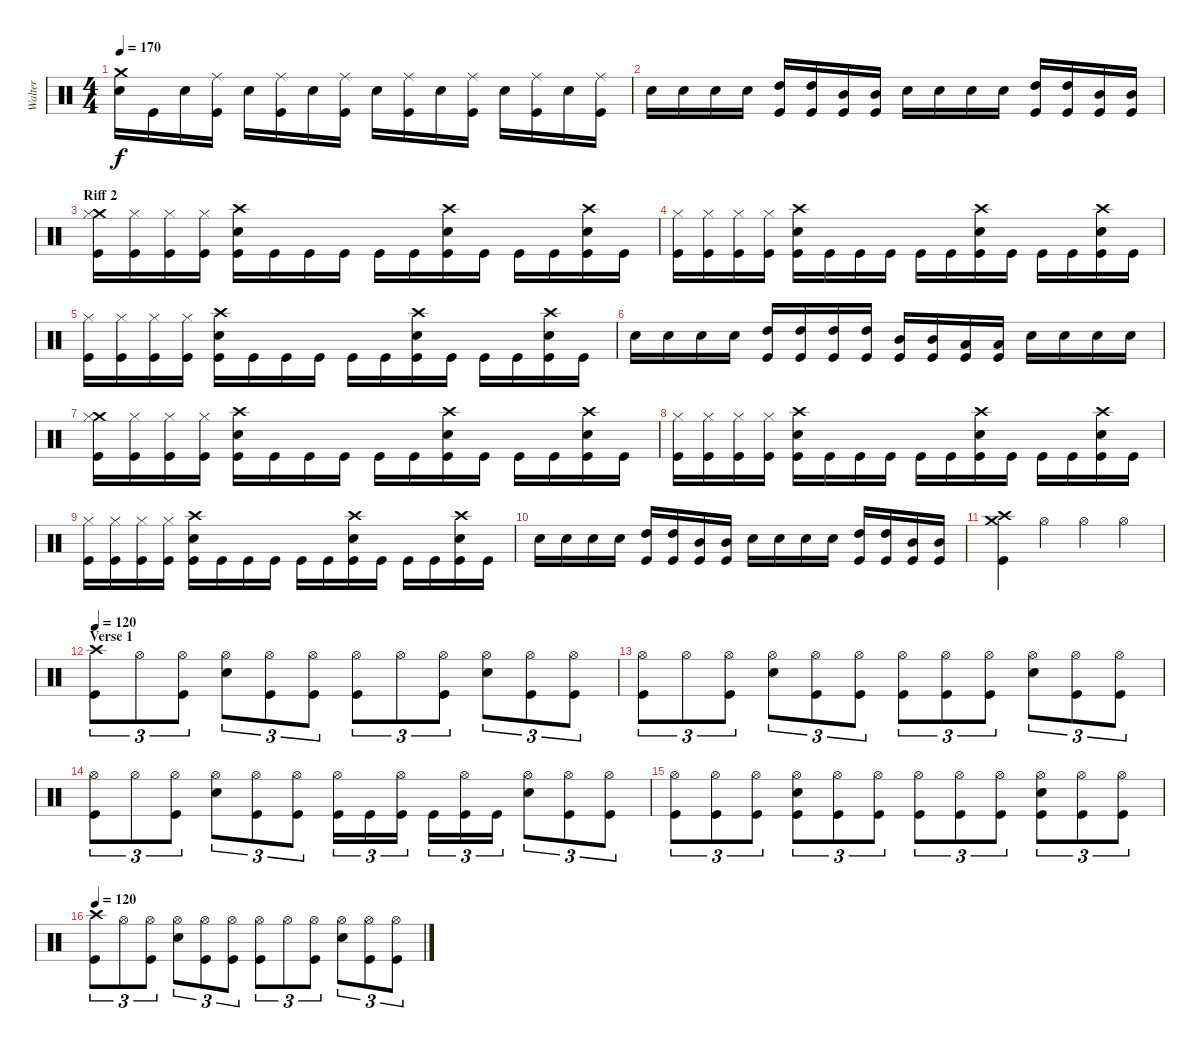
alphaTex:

\track ("Walter" "Walter") {instrument percussion}
\staff {score}
\articulation defaults
\ts (4 4)
\tempo 170
\clef neutral
\ks c
("Crash medium (hit)" "Electric Snare (hit)").16{dy f} "Kick (hit)".16 "Electric Snare (hit)".16 ("Ride (middle)" "Kick (hit)").16 "Electric Snare (hit)".16 ("Ride (middle)" "Kick (hit)").16 "Electric Snare (hit)".16 ("Ride (middle)" "Kick (hit)").16 "Electric Snare (hit)".16 ("Ride (middle)" "Kick (hit)").16 "Electric Snare (hit)".16 ("Ride (middle)" "Kick (hit)").16 "Electric Snare (hit)".16 ("Ride (middle)" "Kick (hit)").16 "Electric Snare (hit)".16 ("Ride (middle)" "Kick (hit)").16 |
"Electric Snare (hit)".16 "Electric Snare (hit)".16 "Electric Snare (hit)".16 "Electric Snare (hit)".16 ("High Tom (hit)" "Kick (hit)").16 ("High Tom (hit)" "Kick (hit)").16 ("Mid Tom (hit)" "Kick (hit)").16 ("Mid Tom (hit)" "Kick (hit)").16 "Electric Snare (hit)".16 "Electric Snare (hit)".16 "Electric Snare (hit)".16 "Electric Snare (hit)".16 ("High Tom (hit)" "Kick (hit)").16 ("High Tom (hit)" "Kick (hit)").16 ("Mid Tom (hit)" "Kick (hit)").16 ("Mid Tom (hit)" "Kick (hit)").16 |
\section ("" "Riff 2")
("Crash medium (hit)" "Hi-Hat (closed)" "Kick (hit)").16 ("Hi-Hat (closed)" "Kick (hit)").16 ("Hi-Hat (closed)" "Kick (hit)").16 ("Hi-Hat (closed)" "Kick (hit)").16 ("Crash high (hit)" "Electric Snare (hit)" "Kick (hit)").16 "Kick (hit)".16 "Kick (hit)".16 "Kick (hit)".16 "Kick (hit)".16 "Kick (hit)".16 ("Crash high (hit)" "Electric Snare (hit)" "Kick (hit)").16 "Kick (hit)".16 "Kick (hit)".16 "Kick (hit)".16 ("Crash high (hit)" "Electric Snare (hit)" "Kick (hit)").16 "Kick (hit)".16 |
("Hi-Hat (closed)" "Kick (hit)").16 ("Hi-Hat (closed)" "Kick (hit)").16 ("Hi-Hat (closed)" "Kick (hit)").16 ("Hi-Hat (closed)" "Kick (hit)").16 ("Crash high (hit)" "Electric Snare (hit)" "Kick (hit)").16 "Kick (hit)".16 "Kick (hit)".16 "Kick (hit)".16 "Kick (hit)".16 "Kick (hit)".16 ("Crash high (hit)" "Electric Snare (hit)" "Kick (hit)").16 "Kick (hit)".16 "Kick (hit)".16 "Kick (hit)".16 ("Crash high (hit)" "Electric Snare (hit)" "Kick (hit)").16 "Kick (hit)".16 |
("Hi-Hat (closed)" "Kick (hit)").16 ("Hi-Hat (closed)" "Kick (hit)").16 ("Hi-Hat (closed)" "Kick (hit)").16 ("Hi-Hat (closed)" "Kick (hit)").16 ("Crash high (hit)" "Electric Snare (hit)" "Kick (hit)").16 "Kick (hit)".16 "Kick (hit)".16 "Kick (hit)".16 "Kick (hit)".16 "Kick (hit)".16 ("Crash high (hit)" "Electric Snare (hit)" "Kick (hit)").16 "Kick (hit)".16 "Kick (hit)".16 "Kick (hit)".16 ("Crash high (hit)" "Electric Snare (hit)" "Kick (hit)").16 "Kick (hit)".16 |
"Electric Snare (hit)".16 "Electric Snare (hit)".16 "Electric Snare (hit)".16 "Electric Snare (hit)".16 ("High Tom (hit)" "Kick (hit)").16 ("High Tom (hit)" "Kick (hit)").16 ("High Tom (hit)" "Kick (hit)").16 ("High Tom (hit)" "Kick (hit)").16 ("Mid Tom (hit)" "Kick (hit)").16 ("Mid Tom (hit)" "Kick (hit)").16 ("Low Tom (hit)" "Kick (hit)").16 ("Low Tom (hit)" "Kick (hit)").16 "Electric Snare (hit)".16 "Electric Snare (hit)".16 "Electric Snare (hit)".16 "Electric Snare (hit)".16 |
("Crash medium (hit)" "Hi-Hat (closed)" "Kick (hit)").16 ("Hi-Hat (closed)" "Kick (hit)").16 ("Hi-Hat (closed)" "Kick (hit)").16 ("Hi-Hat (closed)" "Kick (hit)").16 ("Crash high (hit)" "Electric Snare (hit)" "Kick (hit)").16 "Kick (hit)".16 "Kick (hit)".16 "Kick (hit)".16 "Kick (hit)".16 "Kick (hit)".16 ("Crash high (hit)" "Electric Snare (hit)" "Kick (hit)").16 "Kick (hit)".16 "Kick (hit)".16 "Kick (hit)".16 ("Crash high (hit)" "Electric Snare (hit)" "Kick (hit)").16 "Kick (hit)".16 |
("Hi-Hat (closed)" "Kick (hit)").16 ("Hi-Hat (closed)" "Kick (hit)").16 ("Hi-Hat (closed)" "Kick (hit)").16 ("Hi-Hat (closed)" "Kick (hit)").16 ("Crash high (hit)" "Electric Snare (hit)" "Kick (hit)").16 "Kick (hit)".16 "Kick (hit)".16 "Kick (hit)".16 "Kick (hit)".16 "Kick (hit)".16 ("Crash high (hit)" "Electric Snare (hit)" "Kick (hit)").16 "Kick (hit)".16 "Kick (hit)".16 "Kick (hit)".16 ("Crash high (hit)" "Electric Snare (hit)" "Kick (hit)").16 "Kick (hit)".16 |
("Hi-Hat (closed)" "Kick (hit)").16 ("Hi-Hat (closed)" "Kick (hit)").16 ("Hi-Hat (closed)" "Kick (hit)").16 ("Hi-Hat (closed)" "Kick (hit)").16 ("Crash high (hit)" "Electric Snare (hit)" "Kick (hit)").16 "Kick (hit)".16 "Kick (hit)".16 "Kick (hit)".16 "Kick (hit)".16 "Kick (hit)".16 ("Crash high (hit)" "Electric Snare (hit)" "Kick (hit)").16 "Kick (hit)".16 "Kick (hit)".16 "Kick (hit)".16 ("Crash high (hit)" "Electric Snare (hit)" "Kick (hit)").16 "Kick (hit)".16 |
"Electric Snare (hit)".16 "Electric Snare (hit)".16 "Electric Snare (hit)".16 "Electric Snare (hit)".16 ("High Tom (hit)" "Kick (hit)").16 ("High Tom (hit)" "Kick (hit)").16 ("Mid Tom (hit)" "Kick (hit)").16 ("Mid Tom (hit)" "Kick (hit)").16 "Electric Snare (hit)".16 "Electric Snare (hit)".16 "Electric Snare (hit)".16 "Electric Snare (hit)".16 ("High Tom (hit)" "Kick (hit)").16 ("High Tom (hit)" "Kick (hit)").16 ("Mid Tom (hit)" "Kick (hit)").16 ("Mid Tom (hit)" "Kick (hit)").16 |
("Crash medium (hit)" "Crash high (hit)" "Kick (hit)").4 "Hi-Hat (open)".4 "Hi-Hat (open)".4 "Hi-Hat (open)".4 |
\section ("" "Verse 1")
\tempo 120
("Crash high (hit)" "Kick (hit)").8{tu (3 2)} "Hi-Hat (open)".8{tu (3 2)} ("Hi-Hat (open)" "Kick (hit)").8{tu (3 2)} ("Hi-Hat (open)" "Electric Snare (hit)").8{tu (3 2)} ("Hi-Hat (open)" "Kick (hit)").8{tu (3 2)} ("Hi-Hat (open)" "Kick (hit)").8{tu (3 2)} ("Hi-Hat (open)" "Kick (hit)").8{tu (3 2)} "Hi-Hat (open)".8{tu (3 2)} ("Hi-Hat (open)" "Kick (hit)").8{tu (3 2)} ("Hi-Hat (open)" "Electric Snare (hit)").8{tu (3 2)} ("Hi-Hat (open)" "Kick (hit)").8{tu (3 2)} ("Hi-Hat (open)" "Kick (hit)").8{tu (3 2)} |
("Hi-Hat (open)" "Kick (hit)").8{tu (3 2)} "Hi-Hat (open)".8{tu (3 2)} ("Hi-Hat (open)" "Kick (hit)").8{tu (3 2)} ("Hi-Hat (open)" "Electric Snare (hit)").8{tu (3 2)} ("Hi-Hat (open)" "Kick (hit)").8{tu (3 2)} ("Hi-Hat (open)" "Kick (hit)").8{tu (3 2)} ("Hi-Hat (open)" "Kick (hit)").8{tu (3 2)} ("Hi-Hat (open)" "Kick (hit)").8{tu (3 2)} ("Hi-Hat (open)" "Kick (hit)").8{tu (3 2)} ("Hi-Hat (open)" "Electric Snare (hit)").8{tu (3 2)} ("Hi-Hat (open)" "Kick (hit)").8{tu (3 2)} ("Hi-Hat (open)" "Kick (hit)").8{tu (3 2)} |
("Hi-Hat (open)" "Kick (hit)").8{tu (3 2)} "Hi-Hat (open)".8{tu (3 2)} ("Hi-Hat (open)" "Kick (hit)").8{tu (3 2)} ("Hi-Hat (open)" "Electric Snare (hit)").8{tu (3 2)} ("Hi-Hat (open)" "Kick (hit)").8{tu (3 2)} ("Hi-Hat (open)" "Kick (hit)").8{tu (3 2)} ("Hi-Hat (open)" "Kick (hit)").16{tu (3 2)} "Kick (hit)".16{tu (3 2)} ("Hi-Hat (open)" "Kick (hit)").16{tu (3 2)} "Kick (hit)".16{tu (3 2)} ("Hi-Hat (open)" "Kick (hit)").16{tu (3 2)} "Kick (hit)".16{tu (3 2)} ("Hi-Hat (open)" "Electric Snare (hit)").8{tu (3 2)} ("Hi-Hat (open)" "Kick (hit)").8{tu (3 2)} ("Hi-Hat (open)" "Kick (hit)").8{tu (3 2)} |
("Hi-Hat (open)" "Kick (hit)").8{tu (3 2)} ("Hi-Hat (open)" "Kick (hit)").8{tu (3 2)} ("Hi-Hat (open)" "Kick (hit)").8{tu (3 2)} ("Hi-Hat (open)" "Electric Snare (hit)" "Kick (hit)").8{tu (3 2)} ("Hi-Hat (open)" "Kick (hit)").8{tu (3 2)} ("Hi-Hat (open)" "Kick (hit)").8{tu (3 2)} ("Hi-Hat (open)" "Kick (hit)").8{tu (3 2)} ("Hi-Hat (open)" "Kick (hit)").8{tu (3 2)} ("Hi-Hat (open)" "Kick (hit)").8{tu (3 2)} ("Hi-Hat (open)" "Electric Snare (hit)" "Kick (hit)").8{tu (3 2)} ("Hi-Hat (open)" "Kick (hit)").8{tu (3 2)} ("Hi-Hat (open)" "Kick (hit)").8{tu (3 2)} |
\tempo 120
("Crash high (hit)" "Kick (hit)").8{tu (3 2)} "Hi-Hat (open)".8{tu (3 2)} ("Hi-Hat (open)" "Kick (hit)").8{tu (3 2)} ("Hi-Hat (open)" "Electric Snare (hit)").8{tu (3 2)} ("Hi-Hat (open)" "Kick (hit)").8{tu (3 2)} ("Hi-Hat (open)" "Kick (hit)").8{tu (3 2)} ("Hi-Hat (open)" "Kick (hit)").8{tu (3 2)} "Hi-Hat (open)".8{tu (3 2)} ("Hi-Hat (open)" "Kick (hit)").8{tu (3 2)} ("Hi-Hat (open)" "Electric Snare (hit)").8{tu (3 2)} ("Hi-Hat (open)" "Kick (hit)").8{tu (3 2)} ("Hi-Hat (open)" "Kick (hit)").8{tu (3 2)}
